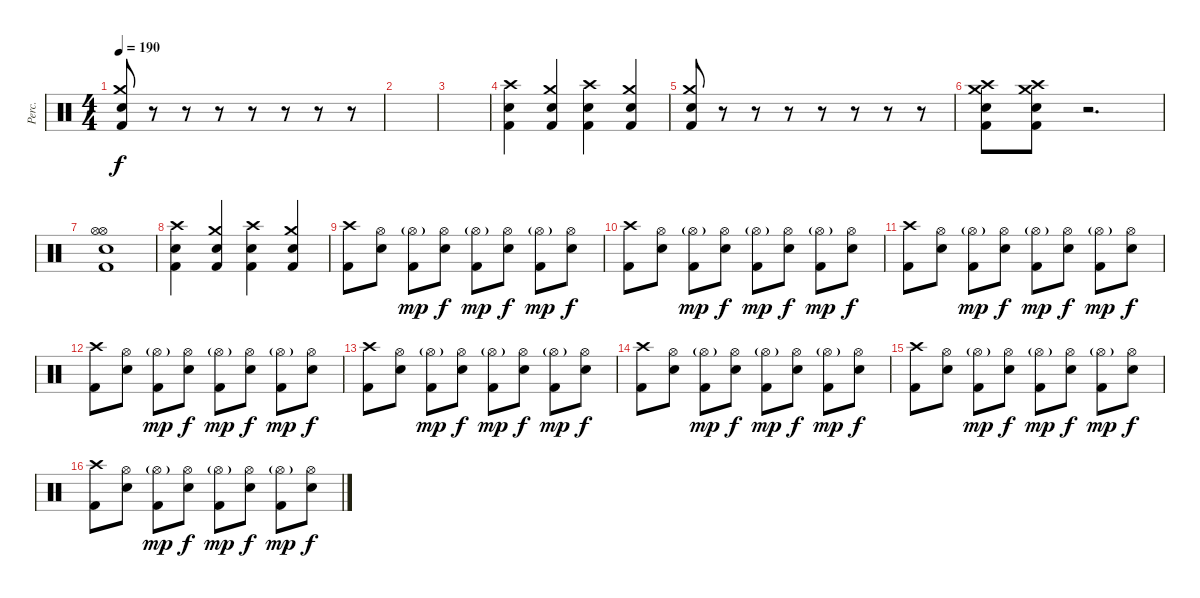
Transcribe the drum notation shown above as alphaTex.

\track ("Perc." "Perc.") {instrument percussion}
\staff {score}
\articulation defaults
\ts (4 4)
\tempo 190
\clef neutral
\ks c
("Kick (hit) 2" "Crash medium (hit)" "Snare (hit) 2").8{dy f} r.8 r.8 r.8 r.8 r.8 r.8 r.8 |
|
|
("Snare (hit) 2" "Crash high (hit)" "Kick (hit) 2").4 ("Snare (hit) 2" "Crash medium (hit)" "Kick (hit) 2").4 ("Snare (hit) 2" "Crash high (hit)" "Kick (hit) 2").4 ("Snare (hit) 2" "Crash medium (hit)" "Kick (hit) 2").4 |
("Kick (hit) 2" "Crash medium (hit)" "Snare (hit) 2").8 r.8 r.8 r.8 r.8 r.8 r.8 r.8 |
("Crash medium (hit)" "Kick (hit) 2" "Crash high (hit)" "Snare (hit) 2").8 ("Crash medium (hit)" "Kick (hit) 2" "Crash high (hit)" "Snare (hit) 2").8 r.2{d} |
("Hi-Hat (open)" "Snare (hit) 2" "Kick (hit) 2" "Hi-Hat (open)").1 |
("Snare (hit) 2" "Crash high (hit)" "Kick (hit) 2").4 ("Snare (hit) 2" "Crash medium (hit)" "Kick (hit) 2").4 ("Snare (hit) 2" "Crash high (hit)" "Kick (hit) 2").4 ("Snare (hit) 2" "Crash medium (hit)" "Kick (hit) 2").4 |
("Crash high (hit)" "Kick (hit) 2").8 ("Hi-Hat (open)" "Snare (hit) 2").8 ("Hi-Hat (open)"{g} "Kick (hit) 2").8{dy mp} ("Hi-Hat (open)" "Snare (hit) 2").8{dy f} ("Hi-Hat (open)"{g} "Kick (hit) 2").8{dy mp} ("Hi-Hat (open)" "Snare (hit) 2").8{dy f} ("Hi-Hat (open)"{g} "Kick (hit) 2").8{dy mp} ("Hi-Hat (open)" "Snare (hit) 2").8{dy f} |
("Crash high (hit)" "Kick (hit) 2").8 ("Hi-Hat (open)" "Snare (hit) 2").8 ("Hi-Hat (open)"{g} "Kick (hit) 2").8{dy mp} ("Hi-Hat (open)" "Snare (hit) 2").8{dy f} ("Hi-Hat (open)"{g} "Kick (hit) 2").8{dy mp} ("Hi-Hat (open)" "Snare (hit) 2").8{dy f} ("Hi-Hat (open)"{g} "Kick (hit) 2").8{dy mp} ("Hi-Hat (open)" "Snare (hit) 2").8{dy f} |
("Crash high (hit)" "Kick (hit) 2").8 ("Hi-Hat (open)" "Snare (hit) 2").8 ("Hi-Hat (open)"{g} "Kick (hit) 2").8{dy mp} ("Hi-Hat (open)" "Snare (hit) 2").8{dy f} ("Hi-Hat (open)"{g} "Kick (hit) 2").8{dy mp} ("Hi-Hat (open)" "Snare (hit) 2").8{dy f} ("Hi-Hat (open)"{g} "Kick (hit) 2").8{dy mp} ("Hi-Hat (open)" "Snare (hit) 2").8{dy f} |
("Crash high (hit)" "Kick (hit) 2").8 ("Hi-Hat (open)" "Snare (hit) 2").8 ("Hi-Hat (open)"{g} "Kick (hit) 2").8{dy mp} ("Hi-Hat (open)" "Snare (hit) 2").8{dy f} ("Hi-Hat (open)"{g} "Kick (hit) 2").8{dy mp} ("Hi-Hat (open)" "Snare (hit) 2").8{dy f} ("Hi-Hat (open)"{g} "Kick (hit) 2").8{dy mp} ("Hi-Hat (open)" "Snare (hit) 2").8{dy f} |
("Crash high (hit)" "Kick (hit) 2").8 ("Hi-Hat (open)" "Snare (hit) 2").8 ("Hi-Hat (open)"{g} "Kick (hit) 2").8{dy mp} ("Hi-Hat (open)" "Snare (hit) 2").8{dy f} ("Hi-Hat (open)"{g} "Kick (hit) 2").8{dy mp} ("Hi-Hat (open)" "Snare (hit) 2").8{dy f} ("Hi-Hat (open)"{g} "Kick (hit) 2").8{dy mp} ("Hi-Hat (open)" "Snare (hit) 2").8{dy f} |
("Crash high (hit)" "Kick (hit) 2").8 ("Hi-Hat (open)" "Snare (hit) 2").8 ("Hi-Hat (open)"{g} "Kick (hit) 2").8{dy mp} ("Hi-Hat (open)" "Snare (hit) 2").8{dy f} ("Hi-Hat (open)"{g} "Kick (hit) 2").8{dy mp} ("Hi-Hat (open)" "Snare (hit) 2").8{dy f} ("Hi-Hat (open)"{g} "Kick (hit) 2").8{dy mp} ("Hi-Hat (open)" "Snare (hit) 2").8{dy f} |
("Crash high (hit)" "Kick (hit) 2").8 ("Hi-Hat (open)" "Snare (hit) 2").8 ("Hi-Hat (open)"{g} "Kick (hit) 2").8{dy mp} ("Hi-Hat (open)" "Snare (hit) 2").8{dy f} ("Hi-Hat (open)"{g} "Kick (hit) 2").8{dy mp} ("Hi-Hat (open)" "Snare (hit) 2").8{dy f} ("Hi-Hat (open)"{g} "Kick (hit) 2").8{dy mp} ("Hi-Hat (open)" "Snare (hit) 2").8{dy f} |
("Crash high (hit)" "Kick (hit) 2").8 ("Hi-Hat (open)" "Snare (hit) 2").8 ("Hi-Hat (open)"{g} "Kick (hit) 2").8{dy mp} ("Hi-Hat (open)" "Snare (hit) 2").8{dy f} ("Hi-Hat (open)"{g} "Kick (hit) 2").8{dy mp} ("Hi-Hat (open)" "Snare (hit) 2").8{dy f} ("Hi-Hat (open)"{g} "Kick (hit) 2").8{dy mp} ("Hi-Hat (open)" "Snare (hit) 2").8{dy f}
